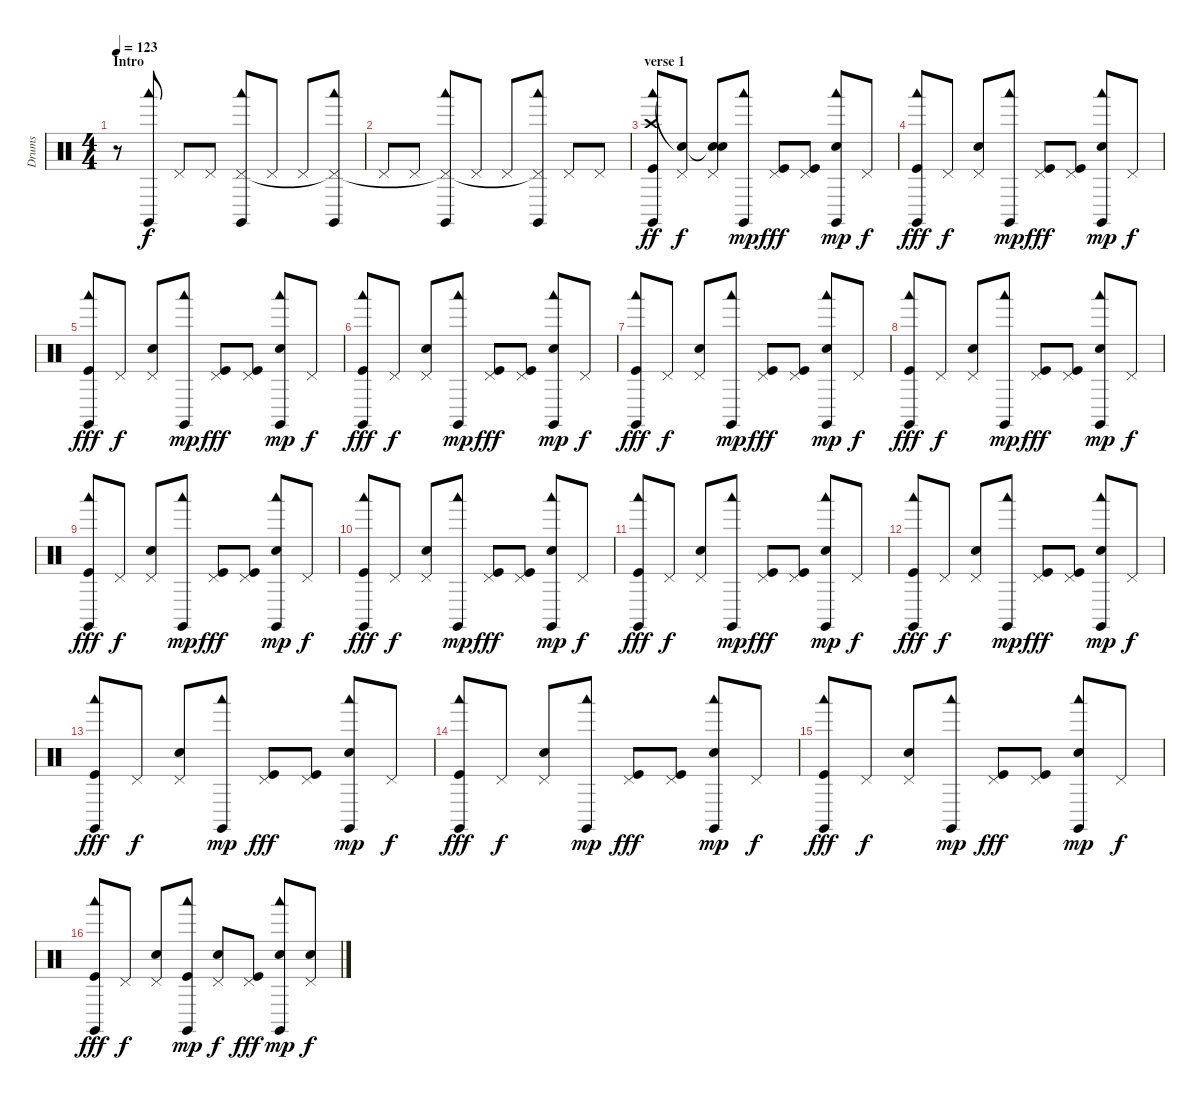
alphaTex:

\track ("Drums" "Drums") {instrument percussion}
\staff {score}
\articulation defaults
\ts (4 4)
\section ("" "Intro")
\tempo 123
\clef neutral
\ks c
r.8{dy f} ("Claves (hit)" "Woodblock low (hit)").8{volume 8 balance 0} "Pedal Hi-Hat (hit)".8 "Pedal Hi-Hat (hit)".8 ("Claves (hit)" "Woodblock low (hit)" "Pedal Hi-Hat (hit)").8 "Pedal Hi-Hat (hit)".8 "Pedal Hi-Hat (hit)".8 ("Claves (hit)" "Woodblock low (hit)" "Pedal Hi-Hat (hit)"{t}).8 |
"Pedal Hi-Hat (hit)".8 "Pedal Hi-Hat (hit)".8 ("Claves (hit)" "Woodblock low (hit)" "Pedal Hi-Hat (hit)"{t}).8 "Pedal Hi-Hat (hit)".8 "Pedal Hi-Hat (hit)".8 ("Claves (hit)" "Woodblock low (hit)" "Pedal Hi-Hat (hit)"{t}).8 "Pedal Hi-Hat (hit)".8 "Pedal Hi-Hat (hit)".8 |
\section ("" "verse 1")
("Claves (hit)" "Woodblock low (hit)" "Crash high (hit)" "Kick (hit)").8{dy ff volume 15 balance 8} ("Pedal Hi-Hat (hit)" "Snare (hit)"{t}).8{dy f} ("Pedal Hi-Hat (hit)" "Snare (hit)"{t} "Electric Snare (hit)").8 ("Claves (hit)" "Woodblock low (hit)").8{dy mp} ("Pedal Hi-Hat (hit)" "Kick (hit)").8{dy fff} ("Pedal Hi-Hat (hit)" "Kick (hit)").8 ("Claves (hit)" "Woodblock low (hit)" "Electric Snare (hit)").8{dy mp} "Pedal Hi-Hat (hit)".8{dy f} |
("Claves (hit)" "Woodblock low (hit)" "Kick (hit)").8{dy fff} "Pedal Hi-Hat (hit)".8{dy f} ("Pedal Hi-Hat (hit)" "Electric Snare (hit)").8 ("Claves (hit)" "Woodblock low (hit)").8{dy mp} ("Pedal Hi-Hat (hit)" "Kick (hit)").8{dy fff} ("Pedal Hi-Hat (hit)" "Kick (hit)").8 ("Claves (hit)" "Woodblock low (hit)" "Electric Snare (hit)").8{dy mp} "Pedal Hi-Hat (hit)".8{dy f} |
("Claves (hit)" "Woodblock low (hit)" "Kick (hit)").8{dy fff} "Pedal Hi-Hat (hit)".8{dy f} ("Pedal Hi-Hat (hit)" "Electric Snare (hit)").8 ("Claves (hit)" "Woodblock low (hit)").8{dy mp} ("Pedal Hi-Hat (hit)" "Kick (hit)").8{dy fff} ("Pedal Hi-Hat (hit)" "Kick (hit)").8 ("Claves (hit)" "Woodblock low (hit)" "Electric Snare (hit)").8{dy mp} "Pedal Hi-Hat (hit)".8{dy f} |
("Claves (hit)" "Woodblock low (hit)" "Kick (hit)").8{dy fff} "Pedal Hi-Hat (hit)".8{dy f} ("Pedal Hi-Hat (hit)" "Electric Snare (hit)").8 ("Claves (hit)" "Woodblock low (hit)").8{dy mp} ("Pedal Hi-Hat (hit)" "Kick (hit)").8{dy fff} ("Pedal Hi-Hat (hit)" "Kick (hit)").8 ("Claves (hit)" "Woodblock low (hit)" "Electric Snare (hit)").8{dy mp} "Pedal Hi-Hat (hit)".8{dy f} |
("Claves (hit)" "Woodblock low (hit)" "Kick (hit)").8{dy fff} "Pedal Hi-Hat (hit)".8{dy f} ("Pedal Hi-Hat (hit)" "Electric Snare (hit)").8 ("Claves (hit)" "Woodblock low (hit)").8{dy mp} ("Pedal Hi-Hat (hit)" "Kick (hit)").8{dy fff} ("Pedal Hi-Hat (hit)" "Kick (hit)").8 ("Claves (hit)" "Woodblock low (hit)" "Electric Snare (hit)").8{dy mp} "Pedal Hi-Hat (hit)".8{dy f} |
("Claves (hit)" "Woodblock low (hit)" "Kick (hit)").8{dy fff} "Pedal Hi-Hat (hit)".8{dy f} ("Pedal Hi-Hat (hit)" "Electric Snare (hit)").8 ("Claves (hit)" "Woodblock low (hit)").8{dy mp} ("Pedal Hi-Hat (hit)" "Kick (hit)").8{dy fff} ("Pedal Hi-Hat (hit)" "Kick (hit)").8 ("Claves (hit)" "Woodblock low (hit)" "Electric Snare (hit)").8{dy mp} "Pedal Hi-Hat (hit)".8{dy f} |
("Claves (hit)" "Woodblock low (hit)" "Kick (hit)").8{dy fff} "Pedal Hi-Hat (hit)".8{dy f} ("Pedal Hi-Hat (hit)" "Electric Snare (hit)").8 ("Claves (hit)" "Woodblock low (hit)").8{dy mp} ("Pedal Hi-Hat (hit)" "Kick (hit)").8{dy fff} ("Pedal Hi-Hat (hit)" "Kick (hit)").8 ("Claves (hit)" "Woodblock low (hit)" "Electric Snare (hit)").8{dy mp} "Pedal Hi-Hat (hit)".8{dy f} |
("Claves (hit)" "Woodblock low (hit)" "Kick (hit)").8{dy fff} "Pedal Hi-Hat (hit)".8{dy f} ("Pedal Hi-Hat (hit)" "Electric Snare (hit)").8 ("Claves (hit)" "Woodblock low (hit)").8{dy mp} ("Pedal Hi-Hat (hit)" "Kick (hit)").8{dy fff} ("Pedal Hi-Hat (hit)" "Kick (hit)").8 ("Claves (hit)" "Woodblock low (hit)" "Electric Snare (hit)").8{dy mp} "Pedal Hi-Hat (hit)".8{dy f} |
("Claves (hit)" "Woodblock low (hit)" "Kick (hit)").8{dy fff} "Pedal Hi-Hat (hit)".8{dy f} ("Pedal Hi-Hat (hit)" "Electric Snare (hit)").8 ("Claves (hit)" "Woodblock low (hit)").8{dy mp} ("Pedal Hi-Hat (hit)" "Kick (hit)").8{dy fff} ("Pedal Hi-Hat (hit)" "Kick (hit)").8 ("Claves (hit)" "Woodblock low (hit)" "Electric Snare (hit)").8{dy mp} "Pedal Hi-Hat (hit)".8{dy f} |
("Claves (hit)" "Woodblock low (hit)" "Kick (hit)").8{dy fff} "Pedal Hi-Hat (hit)".8{dy f} ("Pedal Hi-Hat (hit)" "Electric Snare (hit)").8 ("Claves (hit)" "Woodblock low (hit)").8{dy mp} ("Pedal Hi-Hat (hit)" "Kick (hit)").8{dy fff} ("Pedal Hi-Hat (hit)" "Kick (hit)").8 ("Claves (hit)" "Woodblock low (hit)" "Electric Snare (hit)").8{dy mp} "Pedal Hi-Hat (hit)".8{dy f} |
("Claves (hit)" "Woodblock low (hit)" "Kick (hit)").8{dy fff} "Pedal Hi-Hat (hit)".8{dy f} ("Pedal Hi-Hat (hit)" "Electric Snare (hit)").8 ("Claves (hit)" "Woodblock low (hit)").8{dy mp} ("Pedal Hi-Hat (hit)" "Kick (hit)").8{dy fff} ("Pedal Hi-Hat (hit)" "Kick (hit)").8 ("Claves (hit)" "Woodblock low (hit)" "Electric Snare (hit)").8{dy mp} "Pedal Hi-Hat (hit)".8{dy f} |
("Claves (hit)" "Woodblock low (hit)" "Kick (hit)").8{dy fff} "Pedal Hi-Hat (hit)".8{dy f} ("Pedal Hi-Hat (hit)" "Electric Snare (hit)").8 ("Claves (hit)" "Woodblock low (hit)").8{dy mp} ("Pedal Hi-Hat (hit)" "Kick (hit)").8{dy fff} ("Pedal Hi-Hat (hit)" "Kick (hit)").8 ("Claves (hit)" "Woodblock low (hit)" "Electric Snare (hit)").8{dy mp} "Pedal Hi-Hat (hit)".8{dy f} |
("Claves (hit)" "Woodblock low (hit)" "Kick (hit)").8{dy fff} "Pedal Hi-Hat (hit)".8{dy f} ("Pedal Hi-Hat (hit)" "Electric Snare (hit)").8 ("Claves (hit)" "Woodblock low (hit)").8{dy mp} ("Pedal Hi-Hat (hit)" "Kick (hit)").8{dy fff} ("Pedal Hi-Hat (hit)" "Kick (hit)").8 ("Claves (hit)" "Woodblock low (hit)" "Electric Snare (hit)").8{dy mp} "Pedal Hi-Hat (hit)".8{dy f} |
("Claves (hit)" "Woodblock low (hit)" "Kick (hit)").8{dy fff} "Pedal Hi-Hat (hit)".8{dy f} ("Pedal Hi-Hat (hit)" "Electric Snare (hit)").8 ("Claves (hit)" "Woodblock low (hit)" "Kick (hit)").8{dy mp} ("Pedal Hi-Hat (hit)" "Electric Snare (hit)").8{dy f} ("Pedal Hi-Hat (hit)" "Kick (hit)").8{dy fff} ("Claves (hit)" "Woodblock low (hit)" "Electric Snare (hit)").8{dy mp} ("Pedal Hi-Hat (hit)" "Electric Snare (hit)").8{dy f}
